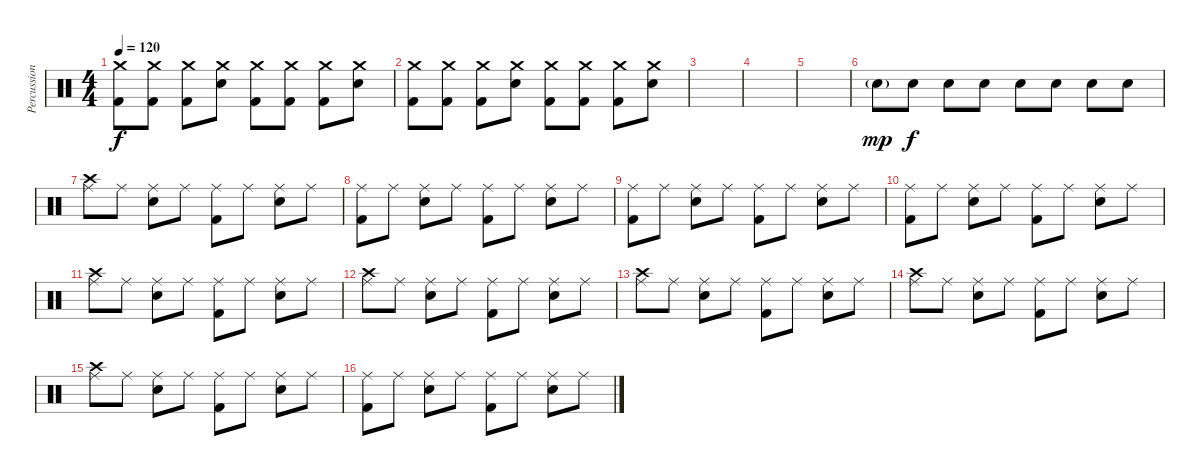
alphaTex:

\track ("Percussions" "Percussion") {instrument percussion}
\staff {score}
\articulation defaults
\ts (4 4)
\tempo 120
\clef neutral
\ks c
("Crash medium (hit)" "Kick (hit) 2").8{dy f} ("Crash medium (hit)" "Kick (hit) 2").8 ("Crash medium (hit)" "Kick (hit) 2").8 ("Crash medium (hit)" "Electric Snare (hit)").8 ("Crash medium (hit)" "Kick (hit) 2").8 ("Crash medium (hit)" "Kick (hit) 2").8 ("Crash medium (hit)" "Kick (hit) 2").8 ("Crash medium (hit)" "Electric Snare (hit)").8 |
("Crash medium (hit)" "Kick (hit) 2").8 ("Crash medium (hit)" "Kick (hit) 2").8 ("Crash medium (hit)" "Kick (hit) 2").8 ("Crash medium (hit)" "Electric Snare (hit)").8 ("Crash medium (hit)" "Kick (hit) 2").8 ("Crash medium (hit)" "Kick (hit) 2").8 ("Crash medium (hit)" "Kick (hit) 2").8 ("Crash medium (hit)" "Electric Snare (hit)").8 |
|
|
|
"Electric Snare (hit)"{g}.8{dy mp} "Electric Snare (hit)".8{dy f} "Electric Snare (hit)".8 "Electric Snare (hit)".8 "Electric Snare (hit)".8 "Electric Snare (hit)".8 "Electric Snare (hit)".8 "Electric Snare (hit)".8 |
("Ride (middle)" "Crash high (hit)").8 "Ride (middle)".8 ("Ride (middle)" "Electric Snare (hit)").8 "Ride (middle)".8 ("Ride (middle)" "Kick (hit) 2").8 "Ride (middle)".8 ("Ride (middle)" "Electric Snare (hit)").8 "Ride (middle)".8 |
("Ride (middle)" "Kick (hit) 2").8 "Ride (middle)".8 ("Ride (middle)" "Electric Snare (hit)").8 "Ride (middle)".8 ("Ride (middle)" "Kick (hit) 2").8 "Ride (middle)".8 ("Ride (middle)" "Electric Snare (hit)").8 "Ride (middle)".8 |
("Ride (middle)" "Kick (hit) 2").8 "Ride (middle)".8 ("Ride (middle)" "Electric Snare (hit)").8 "Ride (middle)".8 ("Ride (middle)" "Kick (hit) 2").8 "Ride (middle)".8 ("Ride (middle)" "Electric Snare (hit)").8 "Ride (middle)".8 |
("Ride (middle)" "Kick (hit) 2").8 "Ride (middle)".8 ("Ride (middle)" "Electric Snare (hit)").8 "Ride (middle)".8 ("Ride (middle)" "Kick (hit) 2").8 "Ride (middle)".8 ("Ride (middle)" "Electric Snare (hit)").8 "Ride (middle)".8 |
("Ride (middle)" "Crash high (hit)").8 "Ride (middle)".8 ("Ride (middle)" "Electric Snare (hit)").8 "Ride (middle)".8 ("Ride (middle)" "Kick (hit) 2").8 "Ride (middle)".8 ("Ride (middle)" "Electric Snare (hit)").8 "Ride (middle)".8 |
("Ride (middle)" "Crash high (hit)").8 "Ride (middle)".8 ("Ride (middle)" "Electric Snare (hit)").8 "Ride (middle)".8 ("Ride (middle)" "Kick (hit) 2").8 "Ride (middle)".8 ("Ride (middle)" "Electric Snare (hit)").8 "Ride (middle)".8 |
("Ride (middle)" "Crash high (hit)").8 "Ride (middle)".8 ("Ride (middle)" "Electric Snare (hit)").8 "Ride (middle)".8 ("Ride (middle)" "Kick (hit) 2").8 "Ride (middle)".8 ("Ride (middle)" "Electric Snare (hit)").8 "Ride (middle)".8 |
("Ride (middle)" "Crash high (hit)").8 "Ride (middle)".8 ("Ride (middle)" "Electric Snare (hit)").8 "Ride (middle)".8 ("Ride (middle)" "Kick (hit) 2").8 "Ride (middle)".8 ("Ride (middle)" "Electric Snare (hit)").8 "Ride (middle)".8 |
("Ride (middle)" "Crash high (hit)").8 "Ride (middle)".8 ("Ride (middle)" "Electric Snare (hit)").8 "Ride (middle)".8 ("Ride (middle)" "Kick (hit) 2").8 "Ride (middle)".8 ("Ride (middle)" "Electric Snare (hit)").8 "Ride (middle)".8 |
("Ride (middle)" "Kick (hit) 2").8 "Ride (middle)".8 ("Ride (middle)" "Electric Snare (hit)").8 "Ride (middle)".8 ("Ride (middle)" "Kick (hit) 2").8 "Ride (middle)".8 ("Ride (middle)" "Electric Snare (hit)").8 "Ride (middle)".8
